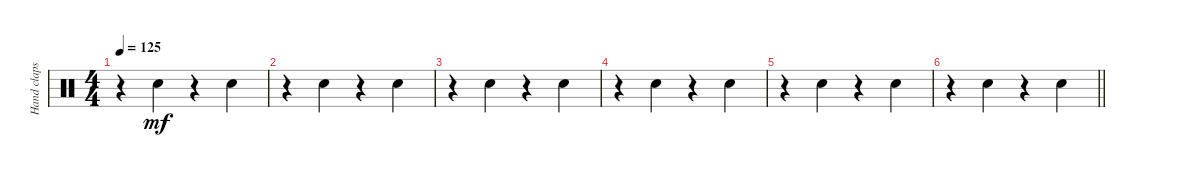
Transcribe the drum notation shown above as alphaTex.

\track ("Hand claps" "Hand claps") {instrument percussion}
\staff {score}
\articulation defaults
\ts (4 4)
\tempo 125
\clef neutral
\ks c
r.4{dy mf} "Hand Clap (hit)".4 r.4 "Hand Clap (hit)".4 |
r.4 "Hand Clap (hit)".4 r.4 "Hand Clap (hit)".4 |
r.4 "Hand Clap (hit)".4 r.4 "Hand Clap (hit)".4 |
r.4 "Hand Clap (hit)".4 r.4 "Hand Clap (hit)".4 |
r.4 "Hand Clap (hit)".4 r.4 "Hand Clap (hit)".4 |
\barLineRight lightlight
r.4 "Hand Clap (hit)".4 r.4 "Hand Clap (hit)".4
